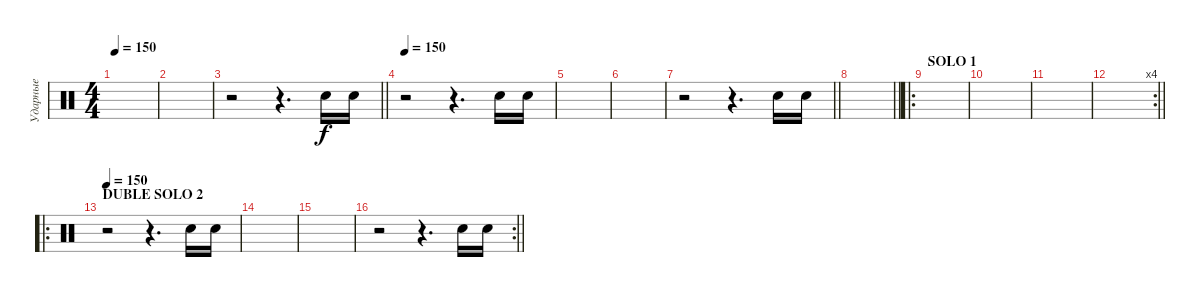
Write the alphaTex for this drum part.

\track ("Ударные" "Ударные") {instrument percussion}
\staff {score}
\articulation defaults
\ts (4 4)
\tempo 150
\clef neutral
\ks c
|
|
\barLineRight lightlight
r.2 r.4{d} "Snare (hit) 2".16 "Snare (hit) 2".16 |
\tempo 150
r.2 r.4{d} "Snare (hit) 2".16 "Snare (hit) 2".16 |
|
|
\barLineRight lightlight
r.2 r.4{d} "Snare (hit) 2".16 "Snare (hit) 2".16 |
\barLineRight lightlight
|
\ro
\section ("" "SOLO 1")
|
|
|
\rc 4
\barLineRight lightlight
|
\ro
\section ("" "DUBLE SOLO 2")
\tempo 150
r.2 r.4{d} "Snare (hit) 2".16 "Snare (hit) 2".16 |
|
|
\rc 2
\barLineRight lightlight
r.2 r.4{d} "Snare (hit) 2".16 "Snare (hit) 2".16
